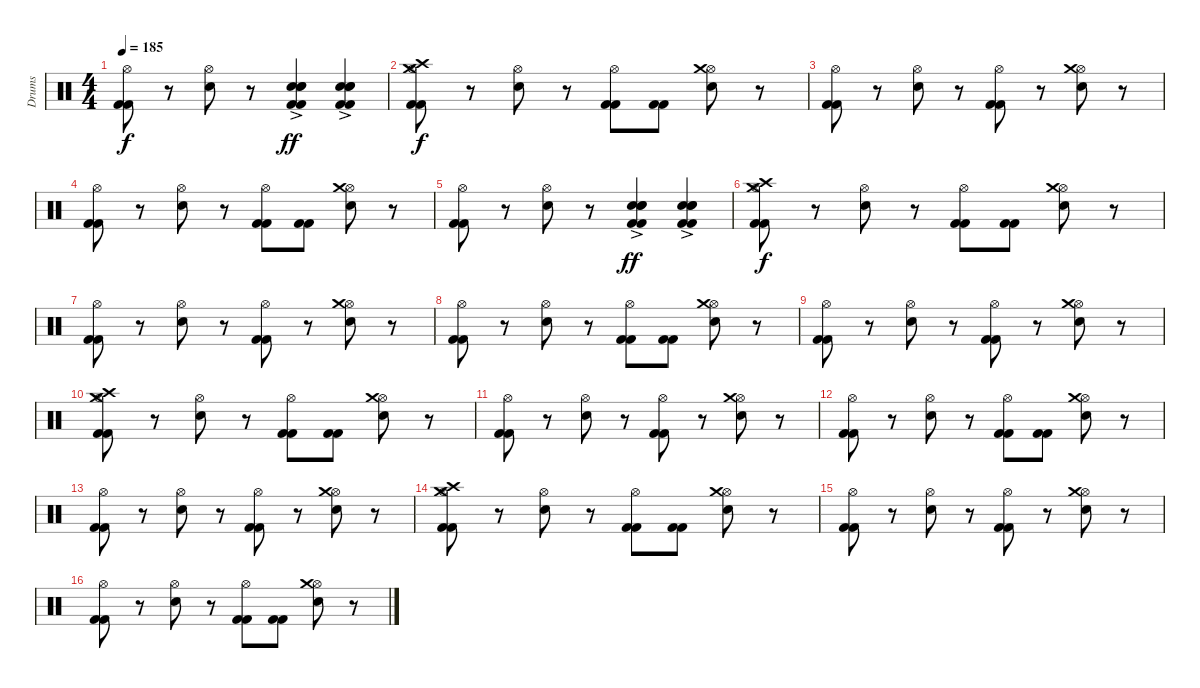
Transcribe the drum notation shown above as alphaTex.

\track ("Drums" "Drums") {instrument percussion}
\staff {score}
\articulation defaults
\ts (4 4)
\tempo 185
\clef neutral
\ks c
("Kick (hit) 2" "Kick (hit) 2" "Hi-Hat (open)").8{dy f} r.8 ("Hi-Hat (open)" "Snare (hit) 2").8 r.8 ("Kick (hit) 2" "Kick (hit) 2" "Snare (hit) 2" "Snare (hit) 2"{ac} "Snare (hit) 2").4{dy ff} ("Kick (hit) 2" "Kick (hit) 2" "Snare (hit) 2" "Snare (hit) 2"{ac} "Snare (hit) 2").4 |
("Kick (hit) 2" "Kick (hit) 2" "Hi-Hat (open)" "Crash high (hit)" "Crash medium (hit)").8{dy f} r.8 ("Hi-Hat (open)" "Snare (hit) 2").8 r.8 ("Kick (hit) 2" "Kick (hit) 2" "Hi-Hat (open)").8 ("Kick (hit) 2" "Kick (hit) 2").8 ("Hi-Hat (open)" "Snare (hit) 2" "Crash medium (hit)").8 r.8 |
("Kick (hit) 2" "Kick (hit) 2" "Hi-Hat (open)").8 r.8 ("Hi-Hat (open)" "Snare (hit) 2").8 r.8 ("Kick (hit) 2" "Kick (hit) 2" "Hi-Hat (open)").8 r.8 ("Hi-Hat (open)" "Snare (hit) 2" "Crash medium (hit)").8 r.8 |
("Kick (hit) 2" "Kick (hit) 2" "Hi-Hat (open)").8 r.8 ("Hi-Hat (open)" "Snare (hit) 2").8 r.8 ("Kick (hit) 2" "Kick (hit) 2" "Hi-Hat (open)").8 ("Kick (hit) 2" "Kick (hit) 2").8 ("Hi-Hat (open)" "Snare (hit) 2" "Crash medium (hit)").8 r.8 |
("Kick (hit) 2" "Kick (hit) 2" "Hi-Hat (open)").8 r.8 ("Hi-Hat (open)" "Snare (hit) 2").8 r.8 ("Kick (hit) 2" "Kick (hit) 2" "Snare (hit) 2" "Snare (hit) 2"{ac} "Snare (hit) 2").4{dy ff} ("Kick (hit) 2" "Kick (hit) 2" "Snare (hit) 2" "Snare (hit) 2"{ac} "Snare (hit) 2").4 |
("Kick (hit) 2" "Kick (hit) 2" "Hi-Hat (open)" "Crash high (hit)" "Crash medium (hit)").8{dy f} r.8 ("Hi-Hat (open)" "Snare (hit) 2").8 r.8 ("Kick (hit) 2" "Kick (hit) 2" "Hi-Hat (open)").8 ("Kick (hit) 2" "Kick (hit) 2").8 ("Hi-Hat (open)" "Snare (hit) 2" "Crash medium (hit)").8 r.8 |
("Kick (hit) 2" "Kick (hit) 2" "Hi-Hat (open)").8 r.8 ("Hi-Hat (open)" "Snare (hit) 2").8 r.8 ("Kick (hit) 2" "Kick (hit) 2" "Hi-Hat (open)").8 r.8 ("Hi-Hat (open)" "Snare (hit) 2" "Crash medium (hit)").8 r.8 |
("Kick (hit) 2" "Kick (hit) 2" "Hi-Hat (open)").8 r.8 ("Hi-Hat (open)" "Snare (hit) 2").8 r.8 ("Kick (hit) 2" "Kick (hit) 2" "Hi-Hat (open)").8 ("Kick (hit) 2" "Kick (hit) 2").8 ("Hi-Hat (open)" "Snare (hit) 2" "Crash medium (hit)").8 r.8 |
("Kick (hit) 2" "Kick (hit) 2" "Hi-Hat (open)").8 r.8 ("Hi-Hat (open)" "Snare (hit) 2").8 r.8 ("Kick (hit) 2" "Kick (hit) 2" "Hi-Hat (open)").8 r.8 ("Hi-Hat (open)" "Snare (hit) 2" "Crash medium (hit)").8 r.8 |
("Kick (hit) 2" "Kick (hit) 2" "Hi-Hat (open)" "Crash high (hit)" "Crash medium (hit)").8 r.8 ("Hi-Hat (open)" "Snare (hit) 2").8 r.8 ("Kick (hit) 2" "Kick (hit) 2" "Hi-Hat (open)").8 ("Kick (hit) 2" "Kick (hit) 2").8 ("Hi-Hat (open)" "Snare (hit) 2" "Crash medium (hit)").8 r.8 |
("Kick (hit) 2" "Kick (hit) 2" "Hi-Hat (open)").8 r.8 ("Hi-Hat (open)" "Snare (hit) 2").8 r.8 ("Kick (hit) 2" "Kick (hit) 2" "Hi-Hat (open)").8 r.8 ("Hi-Hat (open)" "Snare (hit) 2" "Crash medium (hit)").8 r.8 |
("Kick (hit) 2" "Kick (hit) 2" "Hi-Hat (open)").8 r.8 ("Hi-Hat (open)" "Snare (hit) 2").8 r.8 ("Kick (hit) 2" "Kick (hit) 2" "Hi-Hat (open)").8 ("Kick (hit) 2" "Kick (hit) 2").8 ("Hi-Hat (open)" "Snare (hit) 2" "Crash medium (hit)").8 r.8 |
("Kick (hit) 2" "Kick (hit) 2" "Hi-Hat (open)").8 r.8 ("Hi-Hat (open)" "Snare (hit) 2").8 r.8 ("Kick (hit) 2" "Kick (hit) 2" "Hi-Hat (open)").8 r.8 ("Hi-Hat (open)" "Snare (hit) 2" "Crash medium (hit)").8 r.8 |
("Kick (hit) 2" "Kick (hit) 2" "Hi-Hat (open)" "Crash high (hit)" "Crash medium (hit)").8 r.8 ("Hi-Hat (open)" "Snare (hit) 2").8 r.8 ("Kick (hit) 2" "Kick (hit) 2" "Hi-Hat (open)").8 ("Kick (hit) 2" "Kick (hit) 2").8 ("Hi-Hat (open)" "Snare (hit) 2" "Crash medium (hit)").8 r.8 |
("Kick (hit) 2" "Kick (hit) 2" "Hi-Hat (open)").8 r.8 ("Hi-Hat (open)" "Snare (hit) 2").8 r.8 ("Kick (hit) 2" "Kick (hit) 2" "Hi-Hat (open)").8 r.8 ("Hi-Hat (open)" "Snare (hit) 2" "Crash medium (hit)").8 r.8 |
("Kick (hit) 2" "Kick (hit) 2" "Hi-Hat (open)").8 r.8 ("Hi-Hat (open)" "Snare (hit) 2").8 r.8 ("Kick (hit) 2" "Kick (hit) 2" "Hi-Hat (open)").8 ("Kick (hit) 2" "Kick (hit) 2").8 ("Hi-Hat (open)" "Snare (hit) 2" "Crash medium (hit)").8 r.8
